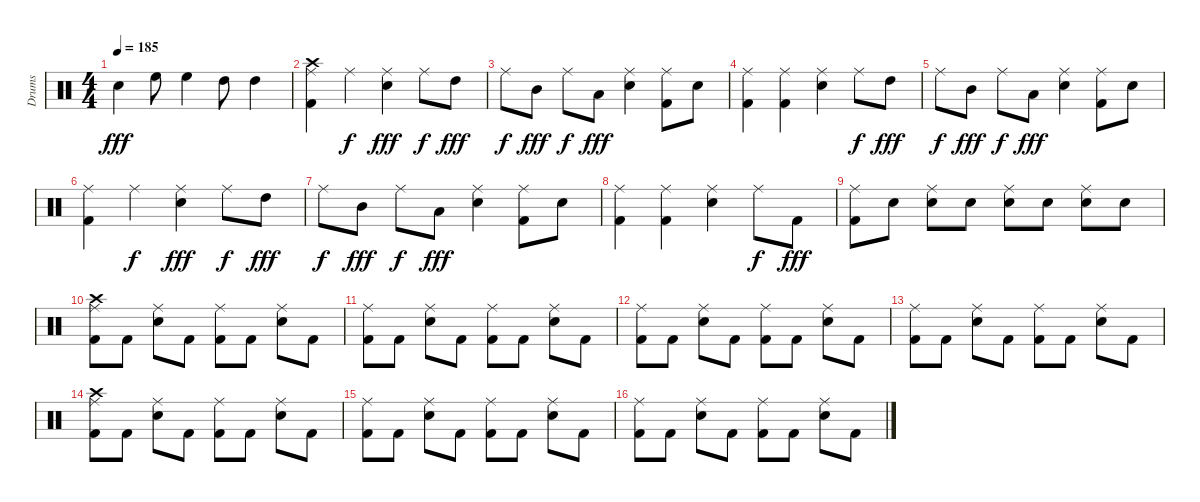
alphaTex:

\track ("Drums" "Drums") {instrument percussion}
\staff {score}
\articulation defaults
\ts (4 4)
\tempo 185
\clef neutral
\ks c "Snare (hit) 2".4{dy fff} "High Floor Tom (hit)".8 "High Floor Tom (hit)".4 "High Tom (hit)".8 "High Tom (hit)".4
|
("Crash high (hit)" "Kick (hit) 2" "Ride (middle)").4 "Ride (middle)".4{dy f} ("Snare (hit) 2" "Ride (middle)").4{dy fff} "Ride (middle)".8{dy f} "High Tom (hit)".8{dy fff} |
"Ride (middle)".8{dy f} "Mid Tom (hit)".8{dy fff} "Ride (middle)".8{dy f} "Low Tom (hit)".8{dy fff} ("Snare (hit) 2" "Ride (middle)").4 ("Kick (hit) 2" "Ride (middle)").8 "Snare (hit) 2".8 |
("Kick (hit) 2" "Ride (middle)").4 ("Kick (hit) 2" "Ride (middle)").4 ("Snare (hit) 2" "Ride (middle)").4 "Ride (middle)".8{dy f} "High Tom (hit)".8{dy fff} |
"Ride (middle)".8{dy f} "Mid Tom (hit)".8{dy fff} "Ride (middle)".8{dy f} "Low Tom (hit)".8{dy fff} ("Snare (hit) 2" "Ride (middle)").4 ("Kick (hit) 2" "Ride (middle)").8 "Snare (hit) 2".8 |
("Kick (hit) 2" "Ride (middle)").4 "Ride (middle)".4{dy f} ("Snare (hit) 2" "Ride (middle)").4{dy fff} "Ride (middle)".8{dy f} "High Tom (hit)".8{dy fff} |
"Ride (middle)".8{dy f} "Mid Tom (hit)".8{dy fff} "Ride (middle)".8{dy f} "Low Tom (hit)".8{dy fff} ("Snare (hit) 2" "Ride (middle)").4 ("Kick (hit) 2" "Ride (middle)").8 "Snare (hit) 2".8 |
("Kick (hit) 2" "Ride (middle)").4 ("Kick (hit) 2" "Ride (middle)").4 ("Snare (hit) 2" "Ride (middle)").4 "Ride (middle)".8{dy f} "Kick (hit) 2".8{dy fff} |
("Kick (hit) 2" "Ride (middle)").8 "Snare (hit) 2".8 ("Snare (hit) 2" "Ride (middle)").8 "Snare (hit) 2".8 ("Snare (hit) 2" "Ride (middle)").8 "Snare (hit) 2".8 ("Snare (hit) 2" "Ride (middle)").8 "Snare (hit) 2".8 |
("Kick (hit) 2" "Crash high (hit)" "Ride (middle)").8 "Kick (hit) 2".8 ("Snare (hit) 2" "Ride (middle)").8 "Kick (hit) 2".8 ("Kick (hit) 2" "Ride (middle)").8 "Kick (hit) 2".8 ("Snare (hit) 2" "Ride (middle)").8 "Kick (hit) 2".8 |
("Kick (hit) 2" "Ride (middle)").8 "Kick (hit) 2".8 ("Snare (hit) 2" "Ride (middle)").8 "Kick (hit) 2".8 ("Kick (hit) 2" "Ride (middle)").8 "Kick (hit) 2".8 ("Snare (hit) 2" "Ride (middle)").8 "Kick (hit) 2".8 |
("Kick (hit) 2" "Ride (middle)").8 "Kick (hit) 2".8 ("Snare (hit) 2" "Ride (middle)").8 "Kick (hit) 2".8 ("Kick (hit) 2" "Ride (middle)").8 "Kick (hit) 2".8 ("Snare (hit) 2" "Ride (middle)").8 "Kick (hit) 2".8 |
("Kick (hit) 2" "Ride (middle)").8 "Kick (hit) 2".8 ("Snare (hit) 2" "Ride (middle)").8 "Kick (hit) 2".8 ("Kick (hit) 2" "Ride (middle)").8 "Kick (hit) 2".8 ("Snare (hit) 2" "Ride (middle)").8 "Kick (hit) 2".8 |
("Kick (hit) 2" "Crash high (hit)" "Ride (middle)").8 "Kick (hit) 2".8 ("Snare (hit) 2" "Ride (middle)").8 "Kick (hit) 2".8 ("Kick (hit) 2" "Ride (middle)").8 "Kick (hit) 2".8 ("Snare (hit) 2" "Ride (middle)").8 "Kick (hit) 2".8 |
("Kick (hit) 2" "Ride (middle)").8 "Kick (hit) 2".8 ("Snare (hit) 2" "Ride (middle)").8 "Kick (hit) 2".8 ("Kick (hit) 2" "Ride (middle)").8 "Kick (hit) 2".8 ("Snare (hit) 2" "Ride (middle)").8 "Kick (hit) 2".8 |
("Kick (hit) 2" "Ride (middle)").8 "Kick (hit) 2".8 ("Snare (hit) 2" "Ride (middle)").8 "Kick (hit) 2".8 ("Kick (hit) 2" "Ride (middle)").8 "Kick (hit) 2".8 ("Snare (hit) 2" "Ride (middle)").8 "Kick (hit) 2".8
